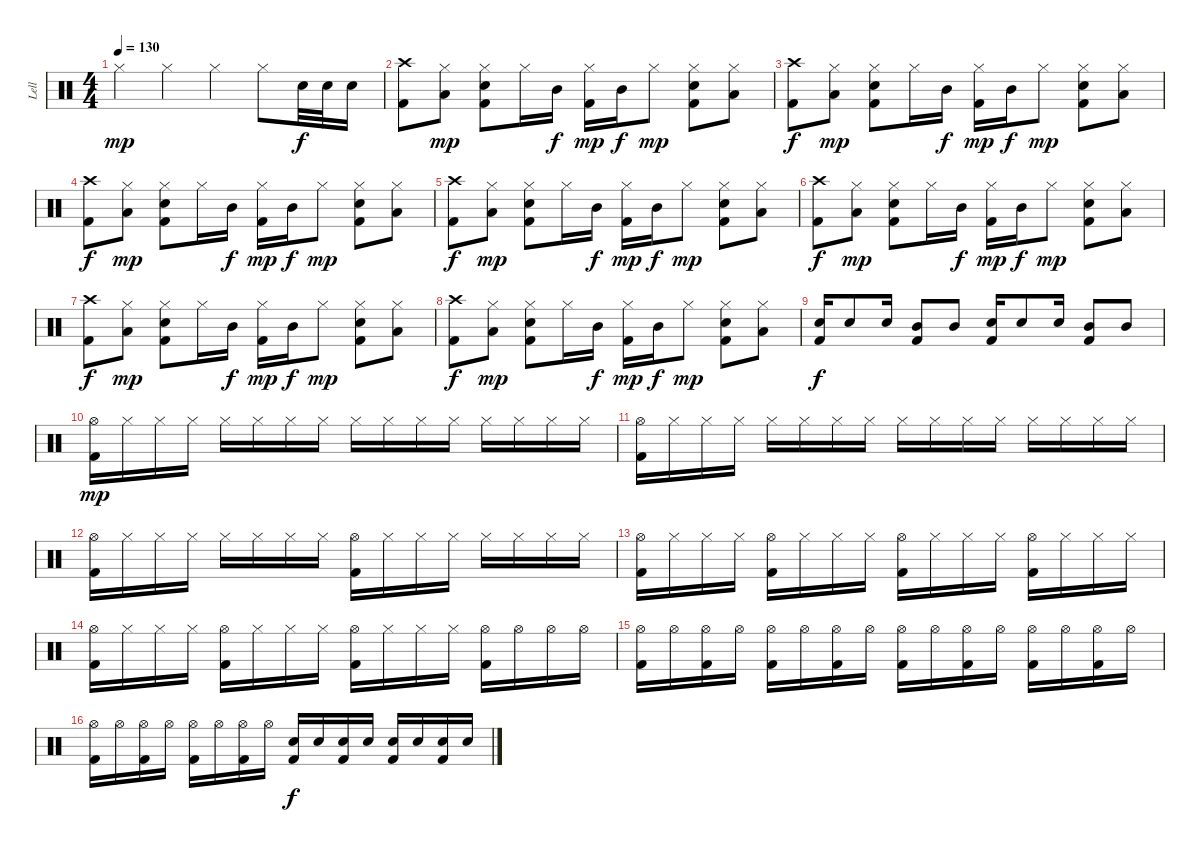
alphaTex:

\track ("Lell" "Lell") {instrument percussion}
\staff {score}
\articulation defaults
\ts (4 4)
\tempo 130
\clef neutral
\ks c "Hi-Hat (closed)".4{dy mp} "Hi-Hat (closed)".4 "Hi-Hat (closed)".4 "Hi-Hat (closed)".8 "Snare (hit) 2".32{dy f} "Snare (hit) 2".32 "Snare (hit) 2".16
|
("Crash high (hit)" "Kick (hit) 2").8 ("Hi-Hat (closed)" "Low Tom (hit)").8{dy mp} ("Hi-Hat (closed)" "Snare (hit) 2" "Kick (hit) 2").8 "Hi-Hat (closed)".16 "Mid Tom (hit)".16{dy f} ("Hi-Hat (closed)" "Kick (hit) 2").16{dy mp} "Mid Tom (hit)".16{dy f} "Hi-Hat (closed)".8{dy mp} ("Hi-Hat (closed)" "Snare (hit) 2" "Kick (hit) 2").8 ("Hi-Hat (closed)" "Low Tom (hit)").8 |
("Crash high (hit)" "Kick (hit) 2").8{dy f} ("Hi-Hat (closed)" "Low Tom (hit)").8{dy mp} ("Hi-Hat (closed)" "Snare (hit) 2" "Kick (hit) 2").8 "Hi-Hat (closed)".16 "Mid Tom (hit)".16{dy f} ("Hi-Hat (closed)" "Kick (hit) 2").16{dy mp} "Mid Tom (hit)".16{dy f} "Hi-Hat (closed)".8{dy mp} ("Hi-Hat (closed)" "Snare (hit) 2" "Kick (hit) 2").8 ("Hi-Hat (closed)" "Low Tom (hit)").8 |
("Crash high (hit)" "Kick (hit) 2").8{dy f} ("Hi-Hat (closed)" "Low Tom (hit)").8{dy mp} ("Hi-Hat (closed)" "Snare (hit) 2" "Kick (hit) 2").8 "Hi-Hat (closed)".16 "Mid Tom (hit)".16{dy f} ("Hi-Hat (closed)" "Kick (hit) 2").16{dy mp} "Mid Tom (hit)".16{dy f} "Hi-Hat (closed)".8{dy mp} ("Hi-Hat (closed)" "Snare (hit) 2" "Kick (hit) 2").8 ("Hi-Hat (closed)" "Low Tom (hit)").8 |
("Crash high (hit)" "Kick (hit) 2").8{dy f} ("Hi-Hat (closed)" "Low Tom (hit)").8{dy mp} ("Hi-Hat (closed)" "Snare (hit) 2" "Kick (hit) 2").8 "Hi-Hat (closed)".16 "Mid Tom (hit)".16{dy f} ("Hi-Hat (closed)" "Kick (hit) 2").16{dy mp} "Mid Tom (hit)".16{dy f} "Hi-Hat (closed)".8{dy mp} ("Hi-Hat (closed)" "Snare (hit) 2" "Kick (hit) 2").8 ("Hi-Hat (closed)" "Low Tom (hit)").8 |
("Crash high (hit)" "Kick (hit) 2").8{dy f} ("Hi-Hat (closed)" "Low Tom (hit)").8{dy mp} ("Hi-Hat (closed)" "Snare (hit) 2" "Kick (hit) 2").8 "Hi-Hat (closed)".16 "Mid Tom (hit)".16{dy f} ("Hi-Hat (closed)" "Kick (hit) 2").16{dy mp} "Mid Tom (hit)".16{dy f} "Hi-Hat (closed)".8{dy mp} ("Hi-Hat (closed)" "Snare (hit) 2" "Kick (hit) 2").8 ("Hi-Hat (closed)" "Low Tom (hit)").8 |
("Crash high (hit)" "Kick (hit) 2").8{dy f} ("Hi-Hat (closed)" "Low Tom (hit)").8{dy mp} ("Hi-Hat (closed)" "Snare (hit) 2" "Kick (hit) 2").8 "Hi-Hat (closed)".16 "Mid Tom (hit)".16{dy f} ("Hi-Hat (closed)" "Kick (hit) 2").16{dy mp} "Mid Tom (hit)".16{dy f} "Hi-Hat (closed)".8{dy mp} ("Hi-Hat (closed)" "Snare (hit) 2" "Kick (hit) 2").8 ("Hi-Hat (closed)" "Low Tom (hit)").8 |
("Crash high (hit)" "Kick (hit) 2").8{dy f} ("Hi-Hat (closed)" "Low Tom (hit)").8{dy mp} ("Hi-Hat (closed)" "Snare (hit) 2" "Kick (hit) 2").8 "Hi-Hat (closed)".16 "Mid Tom (hit)".16{dy f} ("Hi-Hat (closed)" "Kick (hit) 2").16{dy mp} "Mid Tom (hit)".16{dy f} "Hi-Hat (closed)".8{dy mp} ("Hi-Hat (closed)" "Snare (hit) 2" "Kick (hit) 2").8 ("Hi-Hat (closed)" "Low Tom (hit)").8 |
("Snare (hit) 2" "Kick (hit) 2").16{dy f} "Snare (hit) 2".8 "Snare (hit) 2".16 ("Mid Tom (hit)" "Kick (hit) 2").8 "Mid Tom (hit)".8 ("Snare (hit) 2" "Kick (hit) 2").16 "Snare (hit) 2".8 "Snare (hit) 2".16 ("Mid Tom (hit)" "Kick (hit) 2").8 "Mid Tom (hit)".8 |
("Hi-Hat (open)" "Kick (hit) 2").16{dy mp} "Hi-Hat (closed)".16 "Hi-Hat (closed)".16 "Hi-Hat (closed)".16 "Hi-Hat (closed)".16 "Hi-Hat (closed)".16 "Hi-Hat (closed)".16 "Hi-Hat (closed)".16 "Hi-Hat (closed)".16 "Hi-Hat (closed)".16 "Hi-Hat (closed)".16 "Hi-Hat (closed)".16 "Hi-Hat (closed)".16 "Hi-Hat (closed)".16 "Hi-Hat (closed)".16 "Hi-Hat (closed)".16 |
("Hi-Hat (open)" "Kick (hit) 2").16 "Hi-Hat (closed)".16 "Hi-Hat (closed)".16 "Hi-Hat (closed)".16 "Hi-Hat (closed)".16 "Hi-Hat (closed)".16 "Hi-Hat (closed)".16 "Hi-Hat (closed)".16 "Hi-Hat (closed)".16 "Hi-Hat (closed)".16 "Hi-Hat (closed)".16 "Hi-Hat (closed)".16 "Hi-Hat (closed)".16 "Hi-Hat (closed)".16 "Hi-Hat (closed)".16 "Hi-Hat (closed)".16 |
("Hi-Hat (open)" "Kick (hit) 2").16 "Hi-Hat (closed)".16 "Hi-Hat (closed)".16 "Hi-Hat (closed)".16 "Hi-Hat (closed)".16 "Hi-Hat (closed)".16 "Hi-Hat (closed)".16 "Hi-Hat (closed)".16 ("Hi-Hat (open)" "Kick (hit) 2").16 "Hi-Hat (closed)".16 "Hi-Hat (closed)".16 "Hi-Hat (closed)".16 "Hi-Hat (closed)".16 "Hi-Hat (closed)".16 "Hi-Hat (closed)".16 "Hi-Hat (closed)".16 |
("Hi-Hat (open)" "Kick (hit) 2").16 "Hi-Hat (closed)".16 "Hi-Hat (closed)".16 "Hi-Hat (closed)".16 ("Hi-Hat (open)" "Kick (hit) 2").16 "Hi-Hat (closed)".16 "Hi-Hat (closed)".16 "Hi-Hat (closed)".16 ("Hi-Hat (open)" "Kick (hit) 2").16 "Hi-Hat (closed)".16 "Hi-Hat (closed)".16 "Hi-Hat (closed)".16 ("Hi-Hat (open)" "Kick (hit) 2").16 "Hi-Hat (closed)".16 "Hi-Hat (closed)".16 "Hi-Hat (closed)".16 |
("Hi-Hat (open)" "Kick (hit) 2").16 "Hi-Hat (closed)".16 "Hi-Hat (closed)".16 "Hi-Hat (closed)".16 ("Hi-Hat (open)" "Kick (hit) 2").16 "Hi-Hat (closed)".16 "Hi-Hat (closed)".16 "Hi-Hat (closed)".16 ("Hi-Hat (open)" "Kick (hit) 2").16 "Hi-Hat (closed)".16 "Hi-Hat (closed)".16 "Hi-Hat (closed)".16 ("Hi-Hat (open)" "Kick (hit) 2").16 "Hi-Hat (open)".16 "Hi-Hat (open)".16 "Hi-Hat (open)".16 |
("Hi-Hat (open)" "Kick (hit) 2").16 "Hi-Hat (open)".16 ("Hi-Hat (open)" "Kick (hit) 2").16 "Hi-Hat (open)".16 ("Hi-Hat (open)" "Kick (hit) 2").16 "Hi-Hat (open)".16 ("Hi-Hat (open)" "Kick (hit) 2").16 "Hi-Hat (open)".16 ("Hi-Hat (open)" "Kick (hit) 2").16 "Hi-Hat (open)".16 ("Hi-Hat (open)" "Kick (hit) 2").16 "Hi-Hat (open)".16 ("Hi-Hat (open)" "Kick (hit) 2").16 "Hi-Hat (open)".16 ("Hi-Hat (open)" "Kick (hit) 2").16 "Hi-Hat (open)".16 |
("Hi-Hat (open)" "Kick (hit) 2").16 "Hi-Hat (open)".16 ("Hi-Hat (open)" "Kick (hit) 2").16 "Hi-Hat (open)".16 ("Hi-Hat (open)" "Kick (hit) 2").16 "Hi-Hat (open)".16 ("Hi-Hat (open)" "Kick (hit) 2").16 "Hi-Hat (open)".16 ("Snare (hit) 2" "Kick (hit) 2").16{dy f} "Snare (hit) 2".16 ("Snare (hit) 2" "Kick (hit) 2").16 "Snare (hit) 2".16 ("Snare (hit) 2" "Kick (hit) 2").16 "Snare (hit) 2".16 ("Snare (hit) 2" "Kick (hit) 2").16 "Snare (hit) 2".16
